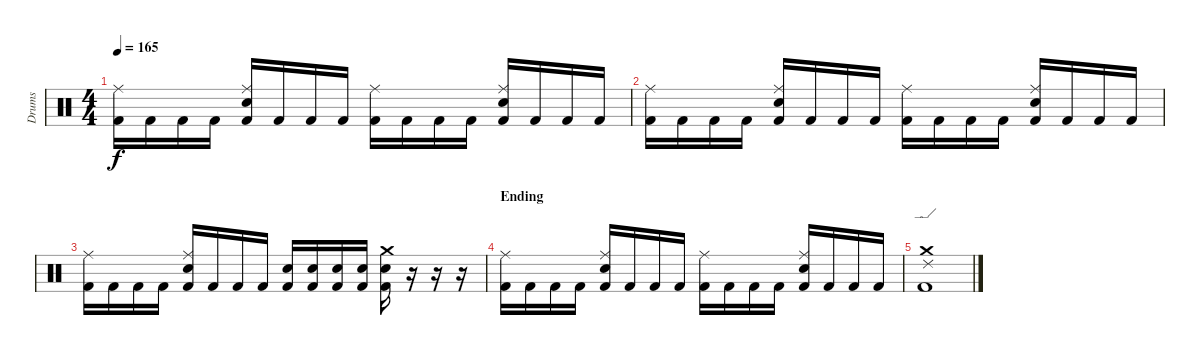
\track ("Drums" "Drums") {instrument percussion}
\staff {score}
\articulation defaults
\ts (4 4)
\tempo 165
\clef neutral
\ks c
("Kick (hit) 2" "Ride (middle)").16{dy f} "Kick (hit) 2".16 "Kick (hit) 2".16 "Kick (hit) 2".16 ("Kick (hit) 2" "Electric Snare (hit)" "Ride (middle)").16 "Kick (hit) 2".16 "Kick (hit) 2".16 "Kick (hit) 2".16 ("Kick (hit) 2" "Ride (middle)").16 "Kick (hit) 2".16 "Kick (hit) 2".16 "Kick (hit) 2".16 ("Kick (hit) 2" "Electric Snare (hit)" "Ride (middle)").16 "Kick (hit) 2".16 "Kick (hit) 2".16 "Kick (hit) 2".16 |
("Kick (hit) 2" "Ride (middle)").16 "Kick (hit) 2".16 "Kick (hit) 2".16 "Kick (hit) 2".16 ("Kick (hit) 2" "Electric Snare (hit)" "Ride (middle)").16 "Kick (hit) 2".16 "Kick (hit) 2".16 "Kick (hit) 2".16 ("Kick (hit) 2" "Ride (middle)").16 "Kick (hit) 2".16 "Kick (hit) 2".16 "Kick (hit) 2".16 ("Kick (hit) 2" "Electric Snare (hit)" "Ride (middle)").16 "Kick (hit) 2".16 "Kick (hit) 2".16 "Kick (hit) 2".16 |
("Kick (hit) 2" "Ride (middle)").16 "Kick (hit) 2".16 "Kick (hit) 2".16 "Kick (hit) 2".16 ("Kick (hit) 2" "Electric Snare (hit)" "Ride (middle)").16 "Kick (hit) 2".16 "Kick (hit) 2".16 "Kick (hit) 2".16 ("Kick (hit) 2" "Electric Snare (hit)").16 ("Kick (hit) 2" "Electric Snare (hit)").16 ("Kick (hit) 2" "Electric Snare (hit)").16 ("Kick (hit) 2" "Electric Snare (hit)").16 ("Kick (hit) 2" "Electric Snare (hit)" "Crash medium (hit)").16 r.16 r.16 r.16 |
\section ("" "Ending")
("Kick (hit) 2" "Ride (middle)").16 "Kick (hit) 2".16 "Kick (hit) 2".16 "Kick (hit) 2".16 ("Kick (hit) 2" "Electric Snare (hit)" "Ride (middle)").16 "Kick (hit) 2".16 "Kick (hit) 2".16 "Kick (hit) 2".16 ("Kick (hit) 2" "Ride (middle)").16 "Kick (hit) 2".16 "Kick (hit) 2".16 "Kick (hit) 2".16 ("Kick (hit) 2" "Electric Snare (hit)" "Ride (middle)").16 "Kick (hit) 2".16 "Kick (hit) 2".16 "Kick (hit) 2".16 |
("Kick (hit) 2" "Crash medium (hit)" "Ride (edge) 2").1
